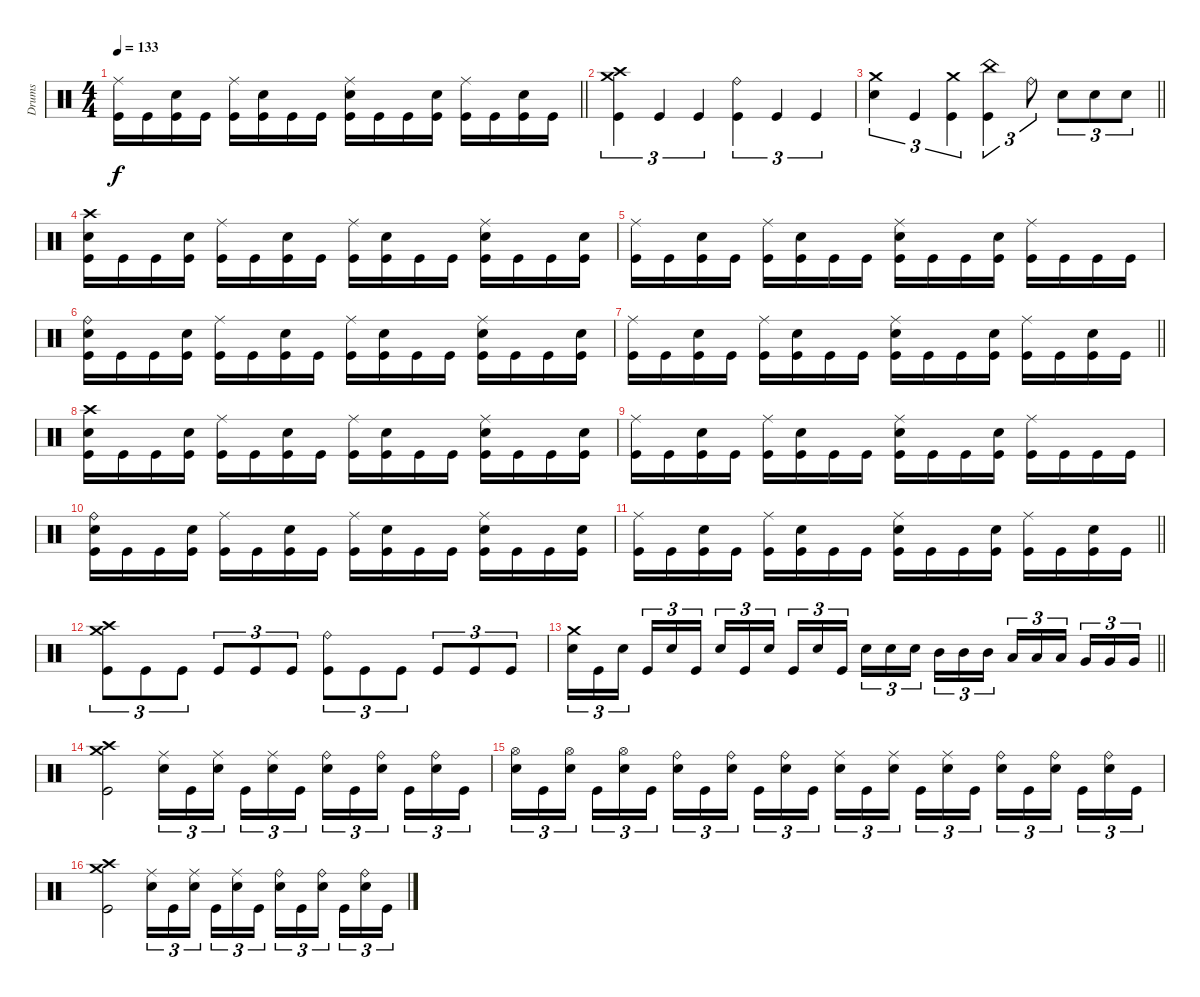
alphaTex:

\track ("Drums" "Drums") {instrument percussion}
\staff
\articulation defaults
\ts (4 4)
\tempo 133
\clef neutral
\barLineRight lightlight
\ks c
("Ride (middle)" "Kick (hit)").16{dy f} "Kick (hit)".16 ("Electric Snare (hit)" "Kick (hit)").16 "Kick (hit)".16 ("Ride (middle)" "Kick (hit)").16 ("Electric Snare (hit)" "Kick (hit)").16 "Kick (hit)".16 "Kick (hit)".16 ("Ride (middle)" "Electric Snare (hit)" "Kick (hit)").16 "Kick (hit)".16 "Kick (hit)".16 ("Electric Snare (hit)" "Kick (hit)").16 ("Ride (middle)" "Kick (hit)").16 "Kick (hit)".16 ("Electric Snare (hit)" "Kick (hit)").16 "Kick (hit)".16 |
("Crash high (hit)" "Crash medium (hit)" "Kick (hit)").4{tu (3 2)} "Kick (hit)".4{tu (3 2)} "Kick (hit)".4{tu (3 2)} ("Ride (bell)" "Kick (hit)").4{tu (3 2)} "Kick (hit)".4{tu (3 2)} "Kick (hit)".4{tu (3 2)} |
\barLineRight lightlight
("Crash medium (hit)" "Electric Snare (hit)").4{tu (3 2)} "Kick (hit)".4{tu (3 2)} ("Crash medium (hit)" "Kick (hit)").4{tu (3 2)} ("China (hit)" "Kick (hit)").4{tu (3 2)} "Ride (bell)".8{tu (3 2)} "Electric Snare (hit)".8{tu (3 2)} "Electric Snare (hit)".8{tu (3 2)} "Electric Snare (hit)".8{tu (3 2)} |
("Crash high (hit)" "Electric Snare (hit)" "Kick (hit)").16 "Kick (hit)".16 "Kick (hit)".16 ("Electric Snare (hit)" "Kick (hit)").16 ("Ride (middle)" "Kick (hit)").16 "Kick (hit)".16 ("Electric Snare (hit)" "Kick (hit)").16 "Kick (hit)".16 ("Ride (middle)" "Kick (hit)").16 ("Electric Snare (hit)" "Kick (hit)").16 "Kick (hit)".16 "Kick (hit)".16 ("Ride (middle)" "Electric Snare (hit)" "Kick (hit)").16 "Kick (hit)".16 "Kick (hit)".16 ("Electric Snare (hit)" "Kick (hit)").16 |
("Ride (middle)" "Kick (hit)").16 "Kick (hit)".16 ("Electric Snare (hit)" "Kick (hit)").16 "Kick (hit)".16 ("Ride (middle)" "Kick (hit)").16 ("Electric Snare (hit)" "Kick (hit)").16 "Kick (hit)".16 "Kick (hit)".16 ("Ride (middle)" "Electric Snare (hit)" "Kick (hit)").16 "Kick (hit)".16 "Kick (hit)".16 ("Electric Snare (hit)" "Kick (hit)").16 ("Ride (middle)" "Kick (hit)").16 "Kick (hit)".16 "Kick (hit)".16 "Kick (hit)".16 |
("Ride (bell)" "Electric Snare (hit)" "Kick (hit)").16 "Kick (hit)".16 "Kick (hit)".16 ("Electric Snare (hit)" "Kick (hit)").16 ("Ride (middle)" "Kick (hit)").16 "Kick (hit)".16 ("Electric Snare (hit)" "Kick (hit)").16 "Kick (hit)".16 ("Ride (middle)" "Kick (hit)").16 ("Electric Snare (hit)" "Kick (hit)").16 "Kick (hit)".16 "Kick (hit)".16 ("Ride (middle)" "Electric Snare (hit)" "Kick (hit)").16 "Kick (hit)".16 "Kick (hit)".16 ("Electric Snare (hit)" "Kick (hit)").16 |
\barLineRight lightlight
("Ride (middle)" "Kick (hit)").16 "Kick (hit)".16 ("Electric Snare (hit)" "Kick (hit)").16 "Kick (hit)".16 ("Ride (middle)" "Kick (hit)").16 ("Electric Snare (hit)" "Kick (hit)").16 "Kick (hit)".16 "Kick (hit)".16 ("Ride (middle)" "Electric Snare (hit)" "Kick (hit)").16 "Kick (hit)".16 "Kick (hit)".16 ("Electric Snare (hit)" "Kick (hit)").16 ("Ride (middle)" "Kick (hit)").16 "Kick (hit)".16 ("Electric Snare (hit)" "Kick (hit)").16 "Kick (hit)".16 |
("Crash high (hit)" "Electric Snare (hit)" "Kick (hit)").16 "Kick (hit)".16 "Kick (hit)".16 ("Electric Snare (hit)" "Kick (hit)").16 ("Ride (middle)" "Kick (hit)").16 "Kick (hit)".16 ("Electric Snare (hit)" "Kick (hit)").16 "Kick (hit)".16 ("Ride (middle)" "Kick (hit)").16 ("Electric Snare (hit)" "Kick (hit)").16 "Kick (hit)".16 "Kick (hit)".16 ("Ride (middle)" "Electric Snare (hit)" "Kick (hit)").16 "Kick (hit)".16 "Kick (hit)".16 ("Electric Snare (hit)" "Kick (hit)").16 |
("Ride (middle)" "Kick (hit)").16 "Kick (hit)".16 ("Electric Snare (hit)" "Kick (hit)").16 "Kick (hit)".16 ("Ride (middle)" "Kick (hit)").16 ("Electric Snare (hit)" "Kick (hit)").16 "Kick (hit)".16 "Kick (hit)".16 ("Ride (middle)" "Electric Snare (hit)" "Kick (hit)").16 "Kick (hit)".16 "Kick (hit)".16 ("Electric Snare (hit)" "Kick (hit)").16 ("Ride (middle)" "Kick (hit)").16 "Kick (hit)".16 "Kick (hit)".16 "Kick (hit)".16 |
("Ride (bell)" "Electric Snare (hit)" "Kick (hit)").16 "Kick (hit)".16 "Kick (hit)".16 ("Electric Snare (hit)" "Kick (hit)").16 ("Ride (middle)" "Kick (hit)").16 "Kick (hit)".16 ("Electric Snare (hit)" "Kick (hit)").16 "Kick (hit)".16 ("Ride (middle)" "Kick (hit)").16 ("Electric Snare (hit)" "Kick (hit)").16 "Kick (hit)".16 "Kick (hit)".16 ("Ride (middle)" "Electric Snare (hit)" "Kick (hit)").16 "Kick (hit)".16 "Kick (hit)".16 ("Electric Snare (hit)" "Kick (hit)").16 |
\barLineRight lightlight
("Ride (middle)" "Kick (hit)").16 "Kick (hit)".16 ("Electric Snare (hit)" "Kick (hit)").16 "Kick (hit)".16 ("Ride (middle)" "Kick (hit)").16 ("Electric Snare (hit)" "Kick (hit)").16 "Kick (hit)".16 "Kick (hit)".16 ("Ride (middle)" "Electric Snare (hit)" "Kick (hit)").16 "Kick (hit)".16 "Kick (hit)".16 ("Electric Snare (hit)" "Kick (hit)").16 ("Ride (middle)" "Kick (hit)").16 "Kick (hit)".16 ("Electric Snare (hit)" "Kick (hit)").16 "Kick (hit)".16 |
("Crash high (hit)" "Crash medium (hit)" "Kick (hit)").8{tu (3 2)} "Kick (hit)".8{tu (3 2)} "Kick (hit)".8{tu (3 2)} "Kick (hit)".8{tu (3 2)} "Kick (hit)".8{tu (3 2)} "Kick (hit)".8{tu (3 2)} ("Ride (bell)" "Kick (hit)").8{tu (3 2)} "Kick (hit)".8{tu (3 2)} "Kick (hit)".8{tu (3 2)} "Kick (hit)".8{tu (3 2)} "Kick (hit)".8{tu (3 2)} "Kick (hit)".8{tu (3 2)} |
\barLineRight lightlight
("Crash medium (hit)" "Electric Snare (hit)").16{tu (3 2)} "Kick (hit)".16{tu (3 2)} "Electric Snare (hit)".16{tu (3 2) beam splitsecondary} "Kick (hit)".16{tu (3 2)} "Electric Snare (hit)".16{tu (3 2)} "Kick (hit)".16{tu (3 2)} "Electric Snare (hit)".16{tu (3 2)} "Kick (hit)".16{tu (3 2)} "Electric Snare (hit)".16{tu (3 2) beam splitsecondary} "Kick (hit)".16{tu (3 2)} "Electric Snare (hit)".16{tu (3 2)} "Kick (hit)".16{tu (3 2)} "Electric Snare (hit)".16{tu (3 2)} "Electric Snare (hit)".16{tu (3 2)} "Electric Snare (hit)".16{tu (3 2) beam splitsecondary} "Mid Tom (hit)".16{tu (3 2)} "Mid Tom (hit)".16{tu (3 2)} "Mid Tom (hit)".16{tu (3 2)} "Low Tom (hit)".16{tu (3 2)} "Low Tom (hit)".16{tu (3 2)} "Low Tom (hit)".16{tu (3 2) beam splitsecondary} "Very Low Tom (hit)".16{tu (3 2)} "Very Low Tom (hit)".16{tu (3 2)} "Very Low Tom (hit)".16{tu (3 2)} |
\section ("" "")
("Crash high (hit)" "Crash medium (hit)" "Kick (hit)").2 ("Ride (middle)" "Electric Snare (hit)").16{tu (3 2)} "Kick (hit)".16{tu (3 2)} ("Ride (middle)" "Electric Snare (hit)").16{tu (3 2) beam splitsecondary} "Kick (hit)".16{tu (3 2)} ("Ride (middle)" "Electric Snare (hit)").16{tu (3 2)} "Kick (hit)".16{tu (3 2)} ("Ride (bell)" "Electric Snare (hit)").16{tu (3 2)} "Kick (hit)".16{tu (3 2)} ("Ride (bell)" "Electric Snare (hit)").16{tu (3 2) beam splitsecondary} "Kick (hit)".16{tu (3 2)} ("Ride (bell)" "Electric Snare (hit)").16{tu (3 2)} "Kick (hit)".16{tu (3 2)} |
("Hi-Hat (open)" "Electric Snare (hit)").16{tu (3 2)} "Kick (hit)".16{tu (3 2)} ("Hi-Hat (open)" "Electric Snare (hit)").16{tu (3 2) beam splitsecondary} "Kick (hit)".16{tu (3 2)} ("Hi-Hat (open)" "Electric Snare (hit)").16{tu (3 2)} "Kick (hit)".16{tu (3 2)} ("Ride (bell)" "Electric Snare (hit)").16{tu (3 2)} "Kick (hit)".16{tu (3 2)} ("Ride (bell)" "Electric Snare (hit)").16{tu (3 2) beam splitsecondary} "Kick (hit)".16{tu (3 2)} ("Ride (bell)" "Electric Snare (hit)").16{tu (3 2)} "Kick (hit)".16{tu (3 2)} ("Ride (middle)" "Electric Snare (hit)").16{tu (3 2)} "Kick (hit)".16{tu (3 2)} ("Ride (middle)" "Electric Snare (hit)").16{tu (3 2) beam splitsecondary} "Kick (hit)".16{tu (3 2)} ("Ride (middle)" "Electric Snare (hit)").16{tu (3 2)} "Kick (hit)".16{tu (3 2)} ("Ride (bell)" "Electric Snare (hit)").16{tu (3 2)} "Kick (hit)".16{tu (3 2)} ("Ride (bell)" "Electric Snare (hit)").16{tu (3 2) beam splitsecondary} "Kick (hit)".16{tu (3 2)} ("Ride (bell)" "Electric Snare (hit)").16{tu (3 2)} "Kick (hit)".16{tu (3 2)} |
("Crash high (hit)" "Crash medium (hit)" "Kick (hit)").2 ("Ride (middle)" "Electric Snare (hit)").16{tu (3 2)} "Kick (hit)".16{tu (3 2)} ("Ride (middle)" "Electric Snare (hit)").16{tu (3 2) beam splitsecondary} "Kick (hit)".16{tu (3 2)} ("Ride (middle)" "Electric Snare (hit)").16{tu (3 2)} "Kick (hit)".16{tu (3 2)} ("Ride (bell)" "Electric Snare (hit)").16{tu (3 2)} "Kick (hit)".16{tu (3 2)} ("Ride (bell)" "Electric Snare (hit)").16{tu (3 2) beam splitsecondary} "Kick (hit)".16{tu (3 2)} ("Ride (bell)" "Electric Snare (hit)").16{tu (3 2)} "Kick (hit)".16{tu (3 2)}
